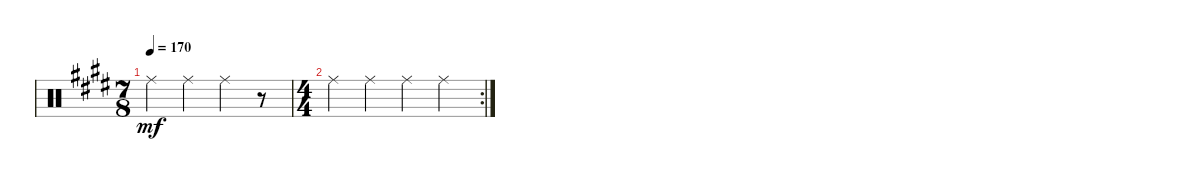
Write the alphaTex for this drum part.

\defaultSystemsLayout 4
\bracketExtendMode groupsimilarinstruments
\singleTrackTrackNamePolicy hidden
\multiTrackTrackNamePolicy hidden
\otherSystemsTrackNameOrientation horizontal
\track ("Drumkit" "Drums") {instrument percussion}
\staff {score}
\articulation defaults
\ts (7 8)
\scale
0.111262
\tempo 170
\accidentals auto
\clef neutral
\ottava regular
\simile none
\ks e "Ride (middle)".4{dy mf} "Ride (middle)".4 "Ride (middle)".4
r.8 |
\rc 2
\ts (4 4)
\scale
0.139756 "Ride (middle)".4 "Ride (middle)".4 "Ride (middle)".4 "Ride (middle)".4
